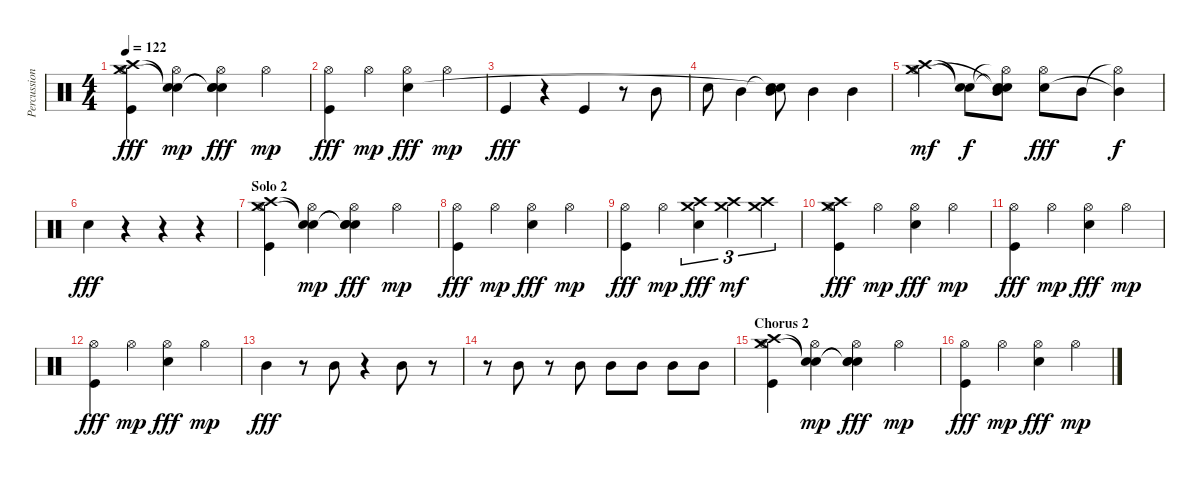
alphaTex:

\track ("Percussion" "Percussion") {instrument percussion}
\staff {score}
\articulation defaults
\ts (4 4)
\tempo 122
\clef neutral
\ks c
("Hi-Hat (open)" "Crash high (hit)" "Crash medium (hit)" "Kick (hit)").4{dy fff} ("Hi-Hat (open)" "Snare (hit)"{t} "Snare (hit)"{t}).4{dy mp} ("Hi-Hat (open)" "Snare (hit)"{t} "Snare (hit)"{t} "Snare (hit) 2").4{dy fff} "Hi-Hat (open)".4{dy mp} |
("Hi-Hat (open)" "Kick (hit)").4{dy fff} "Hi-Hat (open)".4{dy mp} ("Hi-Hat (open)" "Snare (hit) 2").4{dy fff} "Hi-Hat (open)".4{dy mp} |
"Kick (hit)".4{dy fff} r.4 "Kick (hit)".4 r.8 "Mid Tom (hit)".8 |
"Snare (hit) 2".8 "Mid Tom (hit)".4 ("Snare (hit)"{t} "Snare (hit)"{t} "Mid Tom (hit)").8 "Mid Tom (hit)".4 "Mid Tom (hit)".4 |
("Hi-Hat (open)" "Crash high (hit)" "Crash medium (hit)").4{dy mf} ("Snare (hit)"{t} "Snare (hit)"{t}).8{dy f} ("Hi-Hat (open)"{t} "Snare (hit)"{t} "Snare (hit)"{t} "Mid Tom (hit)").8 ("Hi-Hat (open)" "Snare (hit) 2").8{dy fff} "Mid Tom (hit)".8 ("Hi-Hat (open)"{t} "Mid Tom (hit)"{t}).4{dy f} |
"Snare (hit) 2".4{dy fff} r.4 r.4 r.4 |
\section ("" "Solo 2")
("Hi-Hat (open)" "Crash high (hit)" "Crash medium (hit)" "Kick (hit)").4 ("Hi-Hat (open)" "Snare (hit)"{t} "Snare (hit)"{t}).4{dy mp} ("Hi-Hat (open)" "Snare (hit)"{t} "Snare (hit)"{t} "Snare (hit) 2").4{dy fff} "Hi-Hat (open)".4{dy mp} |
("Hi-Hat (open)" "Kick (hit)").4{dy fff} "Hi-Hat (open)".4{dy mp} ("Hi-Hat (open)" "Snare (hit) 2").4{dy fff} "Hi-Hat (open)".4{dy mp} |
("Hi-Hat (open)" "Kick (hit)").4{dy fff} "Hi-Hat (open)".4{dy mp} ("Crash high (hit)" "Crash medium (hit)" "Snare (hit) 2").4{tu (3 2) dy fff} ("Crash high (hit)" "Crash medium (hit)").4{tu (3 2) dy mf} ("Crash high (hit)" "Crash medium (hit)").4{tu (3 2)} |
("Hi-Hat (open)" "Crash high (hit)" "Crash medium (hit)" "Kick (hit)").4{dy fff} "Hi-Hat (open)".4{dy mp} ("Hi-Hat (open)" "Snare (hit) 2").4{dy fff} "Hi-Hat (open)".4{dy mp} |
("Hi-Hat (open)" "Kick (hit)").4{dy fff} "Hi-Hat (open)".4{dy mp} ("Hi-Hat (open)" "Snare (hit) 2").4{dy fff} "Hi-Hat (open)".4{dy mp} |
("Hi-Hat (open)" "Kick (hit)").4{dy fff} "Hi-Hat (open)".4{dy mp} ("Hi-Hat (open)" "Snare (hit) 2").4{dy fff} "Hi-Hat (open)".4{dy mp} |
"Mid Tom (hit)".4{dy fff} r.8 "Mid Tom (hit)".8 r.4 "Mid Tom (hit)".8 r.8 |
r.8 "Mid Tom (hit)".8 r.8 "Mid Tom (hit)".8 "Mid Tom (hit)".8 "Mid Tom (hit)".8 "Mid Tom (hit)".8 "Mid Tom (hit)".8 |
\section ("" "Chorus 2")
("Hi-Hat (open)" "Crash high (hit)" "Crash medium (hit)" "Kick (hit)").4 ("Hi-Hat (open)" "Snare (hit)"{t} "Snare (hit)"{t}).4{dy mp} ("Hi-Hat (open)" "Snare (hit)"{t} "Snare (hit)"{t} "Snare (hit) 2").4{dy fff} "Hi-Hat (open)".4{dy mp} |
("Hi-Hat (open)" "Kick (hit)").4{dy fff} "Hi-Hat (open)".4{dy mp} ("Hi-Hat (open)" "Snare (hit) 2").4{dy fff} "Hi-Hat (open)".4{dy mp}
